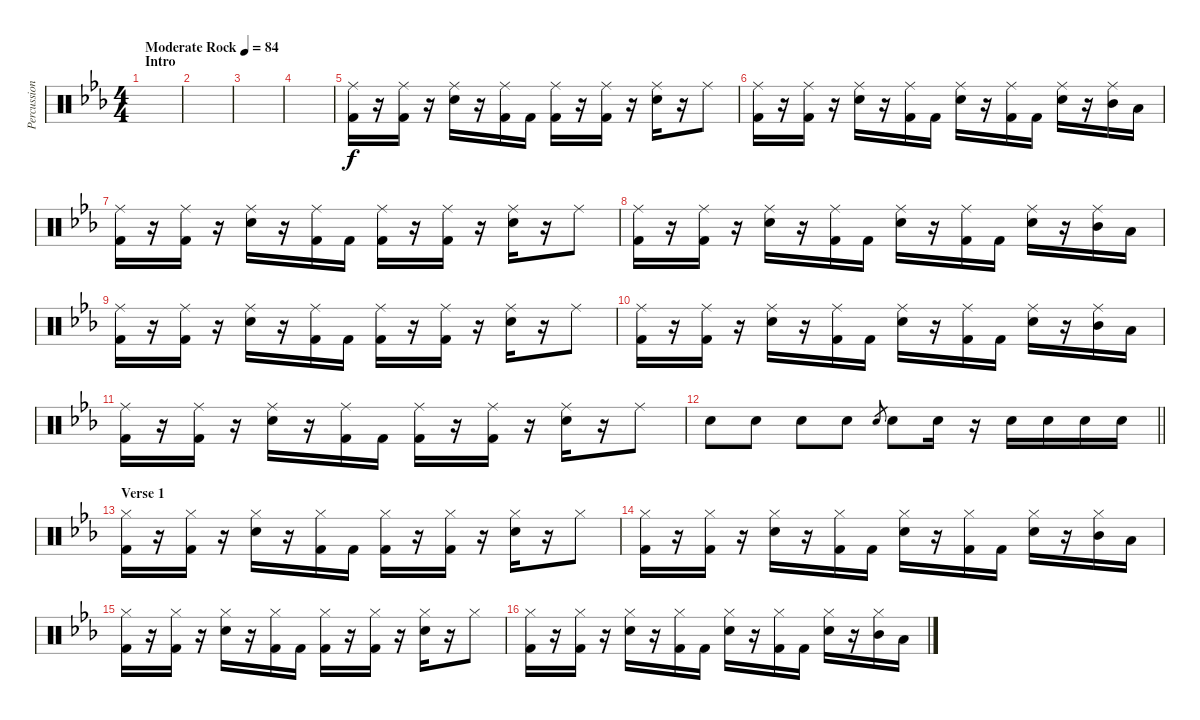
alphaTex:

\track ("Percussion" "Percussion") {instrument percussion}
\staff {score}
\articulation defaults
\ts (4 4)
\section ("" "Intro")
\tempo (84 "Moderate Rock")
\clef neutral
\ks eb
|
|
|
|
("Ride (middle)" "Kick (hit) 2").16 r.16 ("Ride (middle)" "Kick (hit) 2").16 r.16 ("Ride (middle)" "Electric Snare (hit)").16 r.16 ("Ride (middle)" "Kick (hit) 2").16 "Kick (hit) 2".16 ("Ride (middle)" "Kick (hit) 2").16 r.16 ("Ride (middle)" "Kick (hit) 2").16 r.16 ("Ride (middle)" "Electric Snare (hit)").16 r.16 "Ride (middle)".8 |
("Ride (middle)" "Kick (hit) 2").16 r.16 ("Ride (middle)" "Kick (hit) 2").16 r.16 ("Ride (middle)" "Electric Snare (hit)").16 r.16 ("Ride (middle)" "Kick (hit) 2").16 "Kick (hit) 2".16 ("Ride (middle)" "Electric Snare (hit)").16 r.16 ("Ride (middle)" "Kick (hit) 2").16 "Kick (hit) 2".16 ("Ride (middle)" "Electric Snare (hit)").16 r.16 ("Ride (middle)" "Mid Tom (hit)").16 "Low Tom (hit)".16 |
("Ride (middle)" "Kick (hit) 2").16 r.16 ("Ride (middle)" "Kick (hit) 2").16 r.16 ("Ride (middle)" "Electric Snare (hit)").16 r.16 ("Ride (middle)" "Kick (hit) 2").16 "Kick (hit) 2".16 ("Ride (middle)" "Kick (hit) 2").16 r.16 ("Ride (middle)" "Kick (hit) 2").16 r.16 ("Ride (middle)" "Electric Snare (hit)").16 r.16 "Ride (middle)".8 |
("Ride (middle)" "Kick (hit) 2").16 r.16 ("Ride (middle)" "Kick (hit) 2").16 r.16 ("Ride (middle)" "Electric Snare (hit)").16 r.16 ("Ride (middle)" "Kick (hit) 2").16 "Kick (hit) 2".16 ("Ride (middle)" "Electric Snare (hit)").16 r.16 ("Ride (middle)" "Kick (hit) 2").16 "Kick (hit) 2".16 ("Ride (middle)" "Electric Snare (hit)").16 r.16 ("Ride (middle)" "Mid Tom (hit)").16 "Low Tom (hit)".16 |
("Ride (middle)" "Kick (hit) 2").16 r.16 ("Ride (middle)" "Kick (hit) 2").16 r.16 ("Ride (middle)" "Electric Snare (hit)").16 r.16 ("Ride (middle)" "Kick (hit) 2").16 "Kick (hit) 2".16 ("Ride (middle)" "Kick (hit) 2").16 r.16 ("Ride (middle)" "Kick (hit) 2").16 r.16 ("Ride (middle)" "Electric Snare (hit)").16 r.16 "Ride (middle)".8 |
("Ride (middle)" "Kick (hit) 2").16 r.16 ("Ride (middle)" "Kick (hit) 2").16 r.16 ("Ride (middle)" "Electric Snare (hit)").16 r.16 ("Ride (middle)" "Kick (hit) 2").16 "Kick (hit) 2".16 ("Ride (middle)" "Electric Snare (hit)").16 r.16 ("Ride (middle)" "Kick (hit) 2").16 "Kick (hit) 2".16 ("Ride (middle)" "Electric Snare (hit)").16 r.16 ("Ride (middle)" "Mid Tom (hit)").16 "Low Tom (hit)".16 |
("Ride (middle)" "Kick (hit) 2").16 r.16 ("Ride (middle)" "Kick (hit) 2").16 r.16 ("Ride (middle)" "Electric Snare (hit)").16 r.16 ("Ride (middle)" "Kick (hit) 2").16 "Kick (hit) 2".16 ("Ride (middle)" "Kick (hit) 2").16 r.16 ("Ride (middle)" "Kick (hit) 2").16 r.16 ("Ride (middle)" "Electric Snare (hit)").16 r.16 "Ride (middle)".8 |
\barLineRight lightlight "Electric Snare (hit)".8 "Electric Snare (hit)".8 "Electric Snare (hit)".8 "Electric Snare (hit)".8 "Electric Snare (hit)".8{gr} "Electric Snare (hit)".8 "Electric Snare (hit)".16
r.16 "Electric Snare (hit)".16 "Electric Snare (hit)".16 "Electric Snare (hit)".16 "Electric Snare (hit)".16 |
\section ("" "Verse 1")
("Hi-Hat (closed)" "Kick (hit) 2").16 r.16 ("Hi-Hat (closed)" "Kick (hit) 2").16 r.16 ("Hi-Hat (closed)" "Electric Snare (hit)").16 r.16 ("Hi-Hat (closed)" "Kick (hit) 2").16 "Kick (hit) 2".16 ("Hi-Hat (closed)" "Kick (hit) 2").16 r.16 ("Hi-Hat (closed)" "Kick (hit) 2").16 r.16 ("Hi-Hat (closed)" "Electric Snare (hit)").16 r.16 "Hi-Hat (closed)".8 |
("Hi-Hat (closed)" "Kick (hit) 2").16 r.16 ("Hi-Hat (closed)" "Kick (hit) 2").16 r.16 ("Hi-Hat (closed)" "Electric Snare (hit)").16 r.16 ("Hi-Hat (closed)" "Kick (hit) 2").16 "Kick (hit) 2".16 ("Hi-Hat (closed)" "Electric Snare (hit)").16 r.16 ("Hi-Hat (closed)" "Kick (hit) 2").16 "Kick (hit) 2".16 ("Hi-Hat (closed)" "Electric Snare (hit)").16 r.16 ("Hi-Hat (closed)" "Mid Tom (hit)").16 "Low Tom (hit)".16 |
("Hi-Hat (closed)" "Kick (hit) 2").16 r.16 ("Hi-Hat (closed)" "Kick (hit) 2").16 r.16 ("Hi-Hat (closed)" "Electric Snare (hit)").16 r.16 ("Hi-Hat (closed)" "Kick (hit) 2").16 "Kick (hit) 2".16 ("Hi-Hat (closed)" "Kick (hit) 2").16 r.16 ("Hi-Hat (closed)" "Kick (hit) 2").16 r.16 ("Hi-Hat (closed)" "Electric Snare (hit)").16 r.16 "Hi-Hat (closed)".8 |
("Hi-Hat (closed)" "Kick (hit) 2").16 r.16 ("Hi-Hat (closed)" "Kick (hit) 2").16 r.16 ("Hi-Hat (closed)" "Electric Snare (hit)").16 r.16 ("Hi-Hat (closed)" "Kick (hit) 2").16 "Kick (hit) 2".16 ("Hi-Hat (closed)" "Electric Snare (hit)").16 r.16 ("Hi-Hat (closed)" "Kick (hit) 2").16 "Kick (hit) 2".16 ("Hi-Hat (closed)" "Electric Snare (hit)").16 r.16 ("Hi-Hat (closed)" "Mid Tom (hit)").16 "Low Tom (hit)".16
